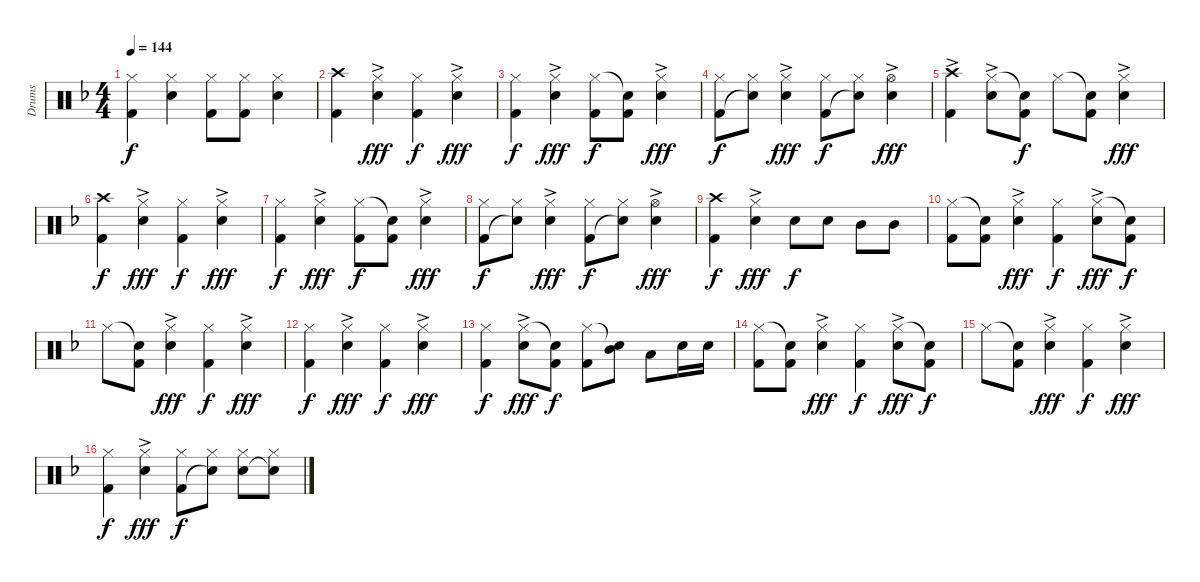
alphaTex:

\track ("Drums" "Drums") {instrument percussion}
\staff {score}
\articulation defaults
\ts (4 4)
\tempo 144
\clef neutral
\ks dminor
("Hi-Hat (closed)" "Kick (hit) 2").4{dy f} ("Hi-Hat (closed)" "Snare (hit) 2").4 ("Hi-Hat (closed)" "Kick (hit) 2").8 ("Hi-Hat (closed)" "Kick (hit) 2").8 ("Hi-Hat (closed)" "Snare (hit) 2").4 |
("Crash high (hit)" "Kick (hit) 2").4 ("Hi-Hat (closed)"{ac} "Snare (hit) 2").4{dy fff} ("Hi-Hat (closed)" "Kick (hit) 2").4{dy f} ("Hi-Hat (closed)"{ac} "Snare (hit) 2").4{dy fff} |
("Hi-Hat (closed)" "Kick (hit) 2").4{dy f} ("Hi-Hat (closed)"{ac} "Snare (hit) 2").4{dy fff} ("Hi-Hat (closed)" "Kick (hit) 2").8{dy f} ("Snare (hit)"{t} "Kick (hit) 2").8 ("Hi-Hat (closed)"{ac} "Snare (hit) 2").4{dy fff} |
("Hi-Hat (closed)" "Kick (hit) 2").8{dy f} ("Hi-Hat (closed)" "Snare (hit)"{t}).8 ("Hi-Hat (closed)"{ac} "Snare (hit) 2").4{dy fff} ("Hi-Hat (closed)" "Kick (hit) 2").8{dy f} ("Hi-Hat (closed)" "Snare (hit)"{t}).8 ("Hi-Hat (open)"{ac} "Snare (hit) 2").4{dy fff} |
("Crash high (hit)"{ac} "Kick (hit) 2").4 ("Hi-Hat (closed)"{ac} "Snare (hit) 2").8 ("Snare (hit)"{t} "Kick (hit) 2").8{dy f} "Hi-Hat (closed)".8 ("Snare (hit)"{t} "Kick (hit) 2").8 ("Hi-Hat (closed)"{ac} "Snare (hit) 2").4{dy fff} |
("Crash high (hit)" "Kick (hit) 2").4{dy f} ("Hi-Hat (closed)"{ac} "Snare (hit) 2").4{dy fff} ("Hi-Hat (closed)" "Kick (hit) 2").4{dy f} ("Hi-Hat (closed)"{ac} "Snare (hit) 2").4{dy fff} |
("Hi-Hat (closed)" "Kick (hit) 2").4{dy f} ("Hi-Hat (closed)"{ac} "Snare (hit) 2").4{dy fff} ("Hi-Hat (closed)" "Kick (hit) 2").8{dy f} ("Snare (hit)"{t} "Kick (hit) 2").8 ("Hi-Hat (closed)"{ac} "Snare (hit) 2").4{dy fff} |
("Hi-Hat (closed)" "Kick (hit) 2").8{dy f} ("Hi-Hat (closed)" "Snare (hit)"{t}).8 ("Hi-Hat (closed)"{ac} "Snare (hit) 2").4{dy fff} ("Hi-Hat (closed)" "Kick (hit) 2").8{dy f} ("Hi-Hat (closed)" "Snare (hit)"{t}).8 ("Hi-Hat (open)"{ac} "Snare (hit) 2").4{dy fff} |
("Crash high (hit)" "Kick (hit) 2").4{dy f volume 6} ("Hi-Hat (closed)"{ac} "Snare (hit) 2").4{dy fff} "Snare (hit) 2".8{dy f} "Snare (hit) 2".8 "Mid Tom (hit)".8 "Mid Tom (hit)".8 |
("Hi-Hat (closed)" "Kick (hit) 2").8 ("Snare (hit)"{t} "Kick (hit) 2").8 ("Hi-Hat (closed)"{ac} "Snare (hit) 2").4{dy fff} ("Hi-Hat (closed)" "Kick (hit) 2").4{dy f} ("Hi-Hat (closed)"{ac} "Snare (hit) 2").8{dy fff} ("Snare (hit)"{t} "Kick (hit) 2").8{dy f} |
"Hi-Hat (closed)".8 ("Snare (hit)"{t} "Kick (hit) 2").8 ("Hi-Hat (closed)"{ac} "Snare (hit) 2").4{dy fff} ("Hi-Hat (closed)" "Kick (hit) 2").4{dy f} ("Hi-Hat (closed)"{ac} "Snare (hit) 2").4{dy fff} |
("Hi-Hat (closed)" "Kick (hit) 2").4{dy f} ("Hi-Hat (closed)"{ac} "Snare (hit) 2").4{dy fff} ("Hi-Hat (closed)" "Kick (hit) 2").4{dy f} ("Hi-Hat (closed)"{ac} "Snare (hit) 2").4{dy fff} |
("Hi-Hat (closed)" "Kick (hit) 2").4{dy f volume 0} ("Hi-Hat (closed)"{ac} "Snare (hit) 2").8{dy fff} ("Snare (hit)"{t} "Kick (hit) 2").8{dy f} ("Hi-Hat (closed)" "Kick (hit) 2").8 ("Snare (hit)"{t} "Mid Tom (hit)").8 "Low Floor Tom (hit)".8 "Snare (hit) 2".16 "Snare (hit) 2".16 |
("Hi-Hat (closed)" "Kick (hit) 2").8 ("Snare (hit)"{t} "Kick (hit) 2").8 ("Hi-Hat (closed)"{ac} "Snare (hit) 2").4{dy fff} ("Hi-Hat (closed)" "Kick (hit) 2").4{dy f} ("Hi-Hat (closed)"{ac} "Snare (hit) 2").8{dy fff} ("Snare (hit)"{t} "Kick (hit) 2").8{dy f} |
"Hi-Hat (closed)".8 ("Snare (hit)"{t} "Kick (hit) 2").8 ("Hi-Hat (closed)"{ac} "Snare (hit) 2").4{dy fff} ("Hi-Hat (closed)" "Kick (hit) 2").4{dy f} ("Hi-Hat (closed)"{ac} "Snare (hit) 2").4{dy fff} |
("Hi-Hat (closed)" "Kick (hit) 2").4{dy f} ("Hi-Hat (closed)"{ac} "Snare (hit) 2").4{dy fff} ("Hi-Hat (closed)" "Kick (hit) 2").8{dy f} ("Hi-Hat (closed)" "Snare (hit)"{t}).8 ("Hi-Hat (closed)" "Snare (hit) 2").8 ("Hi-Hat (closed)" "Snare (hit)"{t}).8
